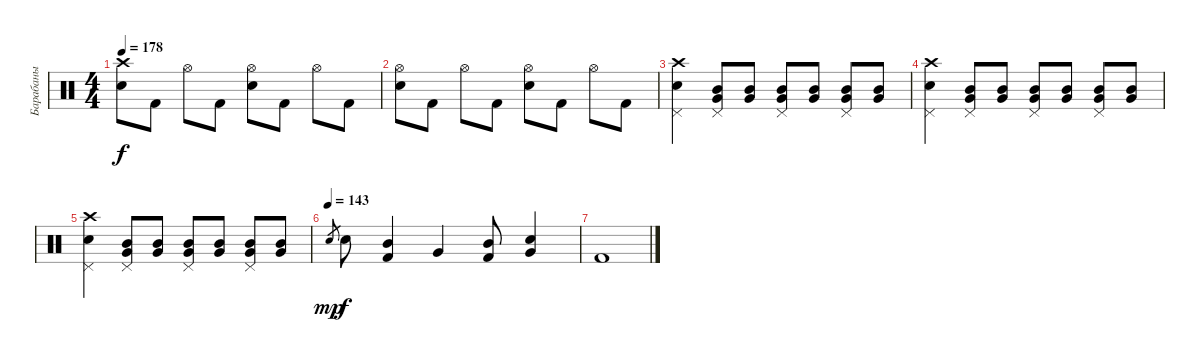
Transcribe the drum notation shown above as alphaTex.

\track ("Барабаны" "Барабаны") {instrument percussion}
\staff {score}
\articulation defaults
\ts (4 4)
\tempo 178
\clef neutral
\ks c
("Crash high (hit)" "Electric Snare (hit)").8{dy f} "Kick (hit) 2".8 "Hi-Hat (open)".8 "Kick (hit) 2".8 ("Hi-Hat (open)" "Electric Snare (hit)").8 "Kick (hit) 2".8 "Hi-Hat (open)".8 "Kick (hit) 2".8 |
("Hi-Hat (open)" "Electric Snare (hit)").8 "Kick (hit) 2".8 "Hi-Hat (open)".8 "Kick (hit) 2".8 ("Hi-Hat (open)" "Electric Snare (hit)").8 "Kick (hit) 2".8 "Hi-Hat (open)".8 "Kick (hit) 2".8 |
("Crash high (hit)" "Pedal Hi-Hat (hit)" "Electric Snare (hit)").4 ("Pedal Hi-Hat (hit)" "Mid Tom (hit)" "Very Low Tom (hit)").8 ("Mid Tom (hit)" "Very Low Tom (hit)").8 ("Pedal Hi-Hat (hit)" "Mid Tom (hit)" "Very Low Tom (hit)").8 ("Mid Tom (hit)" "Very Low Tom (hit)").8 ("Pedal Hi-Hat (hit)" "Mid Tom (hit)" "Very Low Tom (hit)").8 ("Mid Tom (hit)" "Very Low Tom (hit)").8 |
("Crash high (hit)" "Pedal Hi-Hat (hit)" "Electric Snare (hit)").4 ("Pedal Hi-Hat (hit)" "Mid Tom (hit)" "Very Low Tom (hit)").8 ("Mid Tom (hit)" "Very Low Tom (hit)").8 ("Pedal Hi-Hat (hit)" "Mid Tom (hit)" "Very Low Tom (hit)").8 ("Mid Tom (hit)" "Very Low Tom (hit)").8 ("Pedal Hi-Hat (hit)" "Mid Tom (hit)" "Very Low Tom (hit)").8 ("Mid Tom (hit)" "Very Low Tom (hit)").8 |
("Crash high (hit)" "Pedal Hi-Hat (hit)" "Electric Snare (hit)").4 ("Pedal Hi-Hat (hit)" "Mid Tom (hit)" "Very Low Tom (hit)").8 ("Mid Tom (hit)" "Very Low Tom (hit)").8 ("Pedal Hi-Hat (hit)" "Mid Tom (hit)" "Very Low Tom (hit)").8 ("Mid Tom (hit)" "Very Low Tom (hit)").8 ("Pedal Hi-Hat (hit)" "Mid Tom (hit)" "Very Low Tom (hit)").8 ("Mid Tom (hit)" "Very Low Tom (hit)").8 |
\tempo (143)
"Electric Snare (hit)".8{gr dy mp} "Electric Snare (hit)".8{dy f} ("Mid Tom (hit)" "Kick (hit) 2").4 "Very Low Tom (hit)".4 ("Mid Tom (hit)" "Kick (hit) 2").8 ("Very Low Tom (hit)" "Electric Snare (hit)").4 |
"Kick (hit) 2".1
